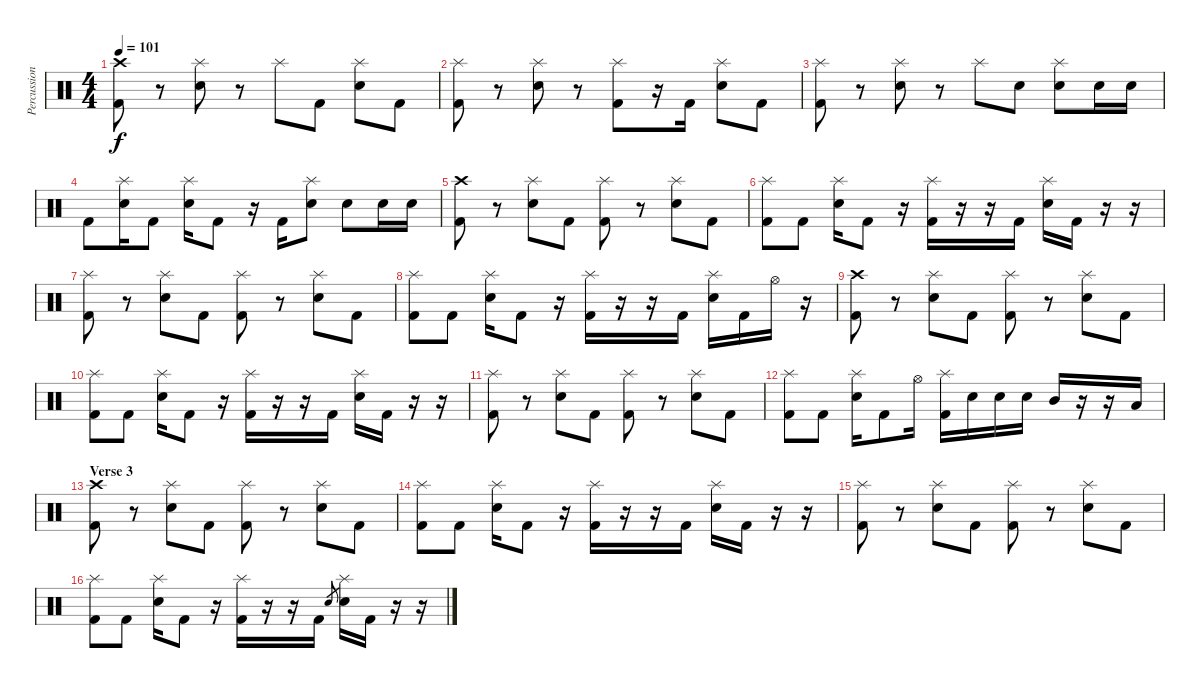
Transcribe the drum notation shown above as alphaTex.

\track ("Percussion" "Percussion") {instrument percussion}
\staff {score}
\articulation defaults
\ts (4 4)
\tempo 101
\clef neutral
\ks c
("Crash high (hit)" "Kick (hit) 2").8{dy f} r.8 ("Splash (hit)" "Electric Snare (hit)").8 r.8 "Splash (hit)".8 "Kick (hit) 2".8 ("Splash (hit)" "Electric Snare (hit)").8 "Kick (hit) 2".8 |
("Splash (hit)" "Kick (hit) 2").8 r.8 ("Splash (hit)" "Electric Snare (hit)").8 r.8 ("Splash (hit)" "Kick (hit) 2").8 r.16 "Kick (hit) 2".16 ("Splash (hit)" "Electric Snare (hit)").8 "Kick (hit) 2".8 |
("Splash (hit)" "Kick (hit) 2").8 r.8 ("Splash (hit)" "Electric Snare (hit)").8 r.8 "Splash (hit)".8 "Electric Snare (hit)".8 ("Splash (hit)" "Electric Snare (hit)").8 "Electric Snare (hit)".16 "Electric Snare (hit)".16 |
"Kick (hit) 2".8 ("Splash (hit)" "Electric Snare (hit)").16 "Kick (hit) 2".8 ("Splash (hit)" "Electric Snare (hit)").16 "Kick (hit) 2".8 r.16 "Kick (hit) 2".16 ("Splash (hit)" "Electric Snare (hit)").8 "Electric Snare (hit)".8 "Electric Snare (hit)".16 "Electric Snare (hit)".16 |
("Crash high (hit)" "Kick (hit) 2").8 r.8 ("Splash (hit)" "Electric Snare (hit)").8 "Kick (hit) 2".8 ("Splash (hit)" "Kick (hit) 2").8 r.8 ("Splash (hit)" "Electric Snare (hit)").8 "Kick (hit) 2".8 |
("Splash (hit)" "Kick (hit) 2").8 "Kick (hit) 2".8 ("Splash (hit)" "Electric Snare (hit)").16 "Kick (hit) 2".8 r.16 ("Splash (hit)" "Kick (hit) 2").16 r.16 r.16 "Kick (hit) 2".16 ("Splash (hit)" "Electric Snare (hit)").16 "Kick (hit) 2".16 r.16 r.16 |
("Splash (hit)" "Kick (hit) 2").8 r.8 ("Splash (hit)" "Electric Snare (hit)").8 "Kick (hit) 2".8 ("Splash (hit)" "Kick (hit) 2").8 r.8 ("Splash (hit)" "Electric Snare (hit)").8 "Kick (hit) 2".8 |
("Splash (hit)" "Kick (hit) 2").8 "Kick (hit) 2".8 ("Splash (hit)" "Electric Snare (hit)").16 "Kick (hit) 2".8 r.16 ("Splash (hit)" "Kick (hit) 2").16 r.16 r.16 "Kick (hit) 2".16 ("Splash (hit)" "Electric Snare (hit)").16 "Kick (hit) 2".16 "Hi-Hat (open)".16 r.16 |
("Crash high (hit)" "Kick (hit) 2").8 r.8 ("Splash (hit)" "Electric Snare (hit)").8 "Kick (hit) 2".8 ("Splash (hit)" "Kick (hit) 2").8 r.8 ("Splash (hit)" "Electric Snare (hit)").8 "Kick (hit) 2".8 |
("Splash (hit)" "Kick (hit) 2").8 "Kick (hit) 2".8 ("Splash (hit)" "Electric Snare (hit)").16 "Kick (hit) 2".8 r.16 ("Splash (hit)" "Kick (hit) 2").16 r.16 r.16 "Kick (hit) 2".16 ("Splash (hit)" "Electric Snare (hit)").16 "Kick (hit) 2".16 r.16 r.16 |
("Splash (hit)" "Kick (hit) 2").8 r.8 ("Splash (hit)" "Electric Snare (hit)").8 "Kick (hit) 2".8 ("Splash (hit)" "Kick (hit) 2").8 r.8 ("Splash (hit)" "Electric Snare (hit)").8 "Kick (hit) 2".8 |
("Splash (hit)" "Kick (hit) 2").8 "Kick (hit) 2".8 ("Splash (hit)" "Electric Snare (hit)").16 "Kick (hit) 2".8 "Hi-Hat (open)".16 ("Splash (hit)" "Kick (hit) 2").16 "Electric Snare (hit)".16 "Electric Snare (hit)".16 "Electric Snare (hit)".16 "Mid Tom (hit)".16 r.16 r.16 "Low Tom (hit)".16 |
\section ("" "Verse 3")
("Crash high (hit)" "Kick (hit) 2").8 r.8 ("Splash (hit)" "Electric Snare (hit)").8 "Kick (hit) 2".8 ("Splash (hit)" "Kick (hit) 2").8 r.8 ("Splash (hit)" "Electric Snare (hit)").8 "Kick (hit) 2".8 |
("Splash (hit)" "Kick (hit) 2").8 "Kick (hit) 2".8 ("Splash (hit)" "Electric Snare (hit)").16 "Kick (hit) 2".8 r.16 ("Splash (hit)" "Kick (hit) 2").16 r.16 r.16 "Kick (hit) 2".16 ("Splash (hit)" "Electric Snare (hit)").16 "Kick (hit) 2".16 r.16 r.16 |
("Splash (hit)" "Kick (hit) 2").8 r.8 ("Splash (hit)" "Electric Snare (hit)").8 "Kick (hit) 2".8 ("Splash (hit)" "Kick (hit) 2").8 r.8 ("Splash (hit)" "Electric Snare (hit)").8 "Kick (hit) 2".8 |
("Splash (hit)" "Kick (hit) 2").8 "Kick (hit) 2".8 ("Splash (hit)" "Electric Snare (hit)").16 "Kick (hit) 2".8 r.16 ("Splash (hit)" "Kick (hit) 2").16 r.16 r.16 "Kick (hit) 2".16 "Electric Snare (hit)".8{gr} ("Splash (hit)" "Electric Snare (hit)").16 "Kick (hit) 2".16 r.16 r.16
